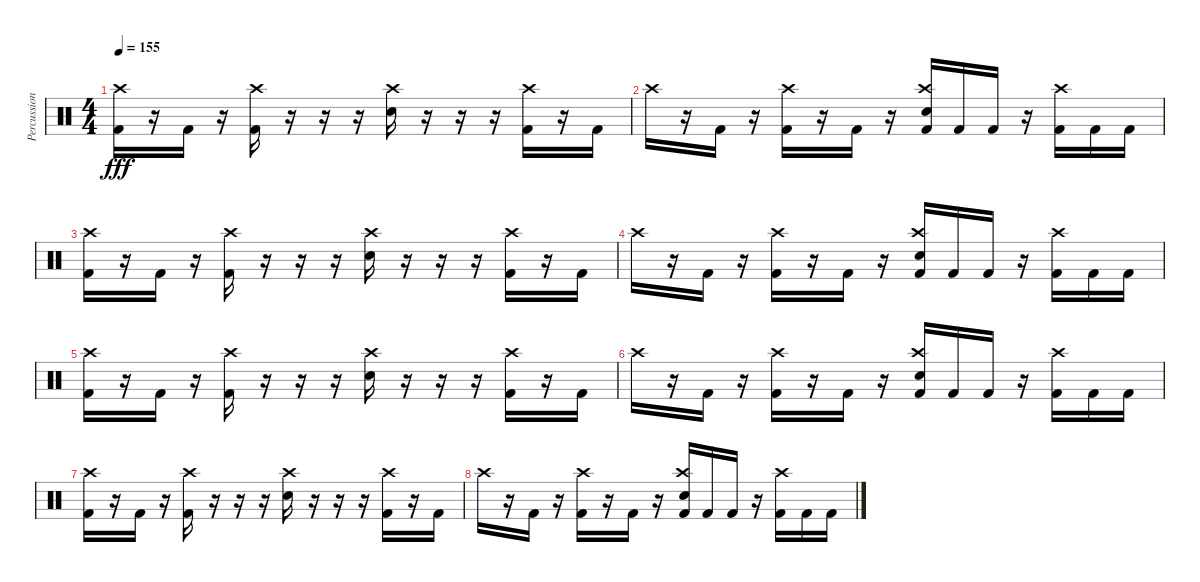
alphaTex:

\track ("Percussion" "Percussion") {instrument percussion}
\staff {score}
\articulation defaults
\ts (4 4)
\tempo 155
\clef neutral
\ks c
("Kick (hit) 2" "Crash high (hit)").16{dy fff} r.16 "Kick (hit) 2".16 r.16 ("Kick (hit) 2" "Crash high (hit)").16 r.16 r.16 r.16 ("Electric Snare (hit)" "Crash high (hit)").16 r.16 r.16 r.16 ("Kick (hit) 2" "Crash high (hit)").16 r.16 "Kick (hit) 2".16 |
"Crash high (hit)".16 r.16 "Kick (hit) 2".16 r.16 ("Kick (hit) 2" "Crash high (hit)").16 r.16 "Kick (hit) 2".16 r.16 ("Kick (hit) 2" "Electric Snare (hit)" "Crash high (hit)").16 "Kick (hit) 2".16 "Kick (hit) 2".16 r.16 ("Kick (hit) 2" "Crash high (hit)").16 "Kick (hit) 2".16 "Kick (hit) 2".16 |
("Kick (hit) 2" "Crash high (hit)").16 r.16 "Kick (hit) 2".16 r.16 ("Kick (hit) 2" "Crash high (hit)").16 r.16 r.16 r.16 ("Electric Snare (hit)" "Crash high (hit)").16 r.16 r.16 r.16 ("Kick (hit) 2" "Crash high (hit)").16 r.16 "Kick (hit) 2".16 |
"Crash high (hit)".16 r.16 "Kick (hit) 2".16 r.16 ("Kick (hit) 2" "Crash high (hit)").16 r.16 "Kick (hit) 2".16 r.16 ("Kick (hit) 2" "Electric Snare (hit)" "Crash high (hit)").16 "Kick (hit) 2".16 "Kick (hit) 2".16 r.16 ("Kick (hit) 2" "Crash high (hit)").16 "Kick (hit) 2".16 "Kick (hit) 2".16 |
("Kick (hit) 2" "Crash high (hit)").16 r.16 "Kick (hit) 2".16 r.16 ("Kick (hit) 2" "Crash high (hit)").16 r.16 r.16 r.16 ("Electric Snare (hit)" "Crash high (hit)").16 r.16 r.16 r.16 ("Kick (hit) 2" "Crash high (hit)").16 r.16 "Kick (hit) 2".16 |
"Crash high (hit)".16 r.16 "Kick (hit) 2".16 r.16 ("Kick (hit) 2" "Crash high (hit)").16 r.16 "Kick (hit) 2".16 r.16 ("Kick (hit) 2" "Electric Snare (hit)" "Crash high (hit)").16 "Kick (hit) 2".16 "Kick (hit) 2".16 r.16 ("Kick (hit) 2" "Crash high (hit)").16 "Kick (hit) 2".16 "Kick (hit) 2".16 |
("Kick (hit) 2" "Crash high (hit)").16 r.16 "Kick (hit) 2".16 r.16 ("Kick (hit) 2" "Crash high (hit)").16 r.16 r.16 r.16 ("Electric Snare (hit)" "Crash high (hit)").16 r.16 r.16 r.16 ("Kick (hit) 2" "Crash high (hit)").16 r.16 "Kick (hit) 2".16 |
"Crash high (hit)".16 r.16 "Kick (hit) 2".16 r.16 ("Kick (hit) 2" "Crash high (hit)").16 r.16 "Kick (hit) 2".16 r.16 ("Kick (hit) 2" "Electric Snare (hit)" "Crash high (hit)").16 "Kick (hit) 2".16 "Kick (hit) 2".16 r.16 ("Kick (hit) 2" "Crash high (hit)").16 "Kick (hit) 2".16 "Kick (hit) 2".16
